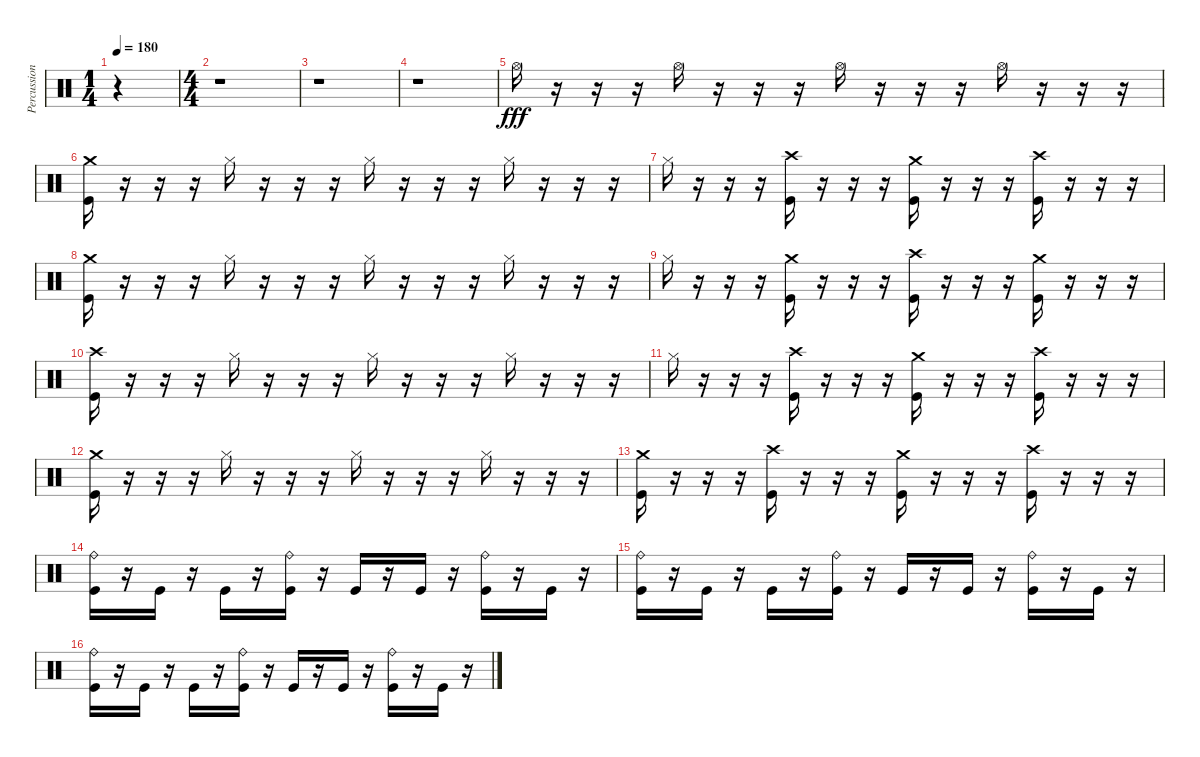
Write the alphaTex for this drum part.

\track ("Percussion" "Percussion") {instrument percussion}
\staff {score}
\articulation defaults
\ts (1 4)
\tempo 180
\clef neutral
\ks c
r.4{dy fff} |
\ts (4 4)
r.1 |
r.1 |
r.1 |
"Hi-Hat (open)".16 r.16 r.16 r.16 "Hi-Hat (open)".16 r.16 r.16 r.16 "Hi-Hat (open)".16 r.16 r.16 r.16 "Hi-Hat (open)".16 r.16 r.16 r.16 |
("Crash medium (hit)" "Kick (hit)").16 r.16 r.16 r.16 "Hi-Hat (closed)".16 r.16 r.16 r.16 "Hi-Hat (closed)".16 r.16 r.16 r.16 "Hi-Hat (closed)".16 r.16 r.16 r.16 |
"Hi-Hat (closed)".16 r.16 r.16 r.16 ("Crash high (hit)" "Kick (hit)").16 r.16 r.16 r.16 ("Crash medium (hit)" "Kick (hit)").16 r.16 r.16 r.16 ("Crash high (hit)" "Kick (hit)").16 r.16 r.16 r.16 |
("Crash medium (hit)" "Kick (hit)").16 r.16 r.16 r.16 "Hi-Hat (closed)".16 r.16 r.16 r.16 "Hi-Hat (closed)".16 r.16 r.16 r.16 "Hi-Hat (closed)".16 r.16 r.16 r.16 |
"Hi-Hat (closed)".16 r.16 r.16 r.16 ("Crash medium (hit)" "Kick (hit)").16 r.16 r.16 r.16 ("Crash high (hit)" "Kick (hit)").16 r.16 r.16 r.16 ("Crash medium (hit)" "Kick (hit)").16 r.16 r.16 r.16 |
("Crash high (hit)" "Kick (hit)").16 r.16 r.16 r.16 "Hi-Hat (closed)".16 r.16 r.16 r.16 "Hi-Hat (closed)".16 r.16 r.16 r.16 "Hi-Hat (closed)".16 r.16 r.16 r.16 |
"Hi-Hat (closed)".16 r.16 r.16 r.16 ("Crash high (hit)" "Kick (hit)").16 r.16 r.16 r.16 ("Crash medium (hit)" "Kick (hit)").16 r.16 r.16 r.16 ("Crash high (hit)" "Kick (hit)").16 r.16 r.16 r.16 |
("Crash medium (hit)" "Kick (hit)").16 r.16 r.16 r.16 "Hi-Hat (closed)".16 r.16 r.16 r.16 "Hi-Hat (closed)".16 r.16 r.16 r.16 "Hi-Hat (closed)".16 r.16 r.16 r.16 |
("Crash medium (hit)" "Kick (hit)").16 r.16 r.16 r.16 ("Crash high (hit)" "Kick (hit)").16 r.16 r.16 r.16 ("Crash medium (hit)" "Kick (hit)").16 r.16 r.16 r.16 ("Crash high (hit)" "Kick (hit)").16 r.16 r.16 r.16 |
("Ride (bell)" "Kick (hit)").16 r.16 "Kick (hit)".16 r.16 "Kick (hit)".16 r.16 ("Ride (bell)" "Kick (hit)").16 r.16 "Kick (hit)".16 r.16 "Kick (hit)".16 r.16 ("Ride (bell)" "Kick (hit)").16 r.16 "Kick (hit)".16 r.16 |
("Ride (bell)" "Kick (hit)").16 r.16 "Kick (hit)".16 r.16 "Kick (hit)".16 r.16 ("Ride (bell)" "Kick (hit)").16 r.16 "Kick (hit)".16 r.16 "Kick (hit)".16 r.16 ("Ride (bell)" "Kick (hit)").16 r.16 "Kick (hit)".16 r.16 |
("Ride (bell)" "Kick (hit)").16 r.16 "Kick (hit)".16 r.16 "Kick (hit)".16 r.16 ("Ride (bell)" "Kick (hit)").16 r.16 "Kick (hit)".16 r.16 "Kick (hit)".16 r.16 ("Ride (bell)" "Kick (hit)").16 r.16 "Kick (hit)".16 r.16
